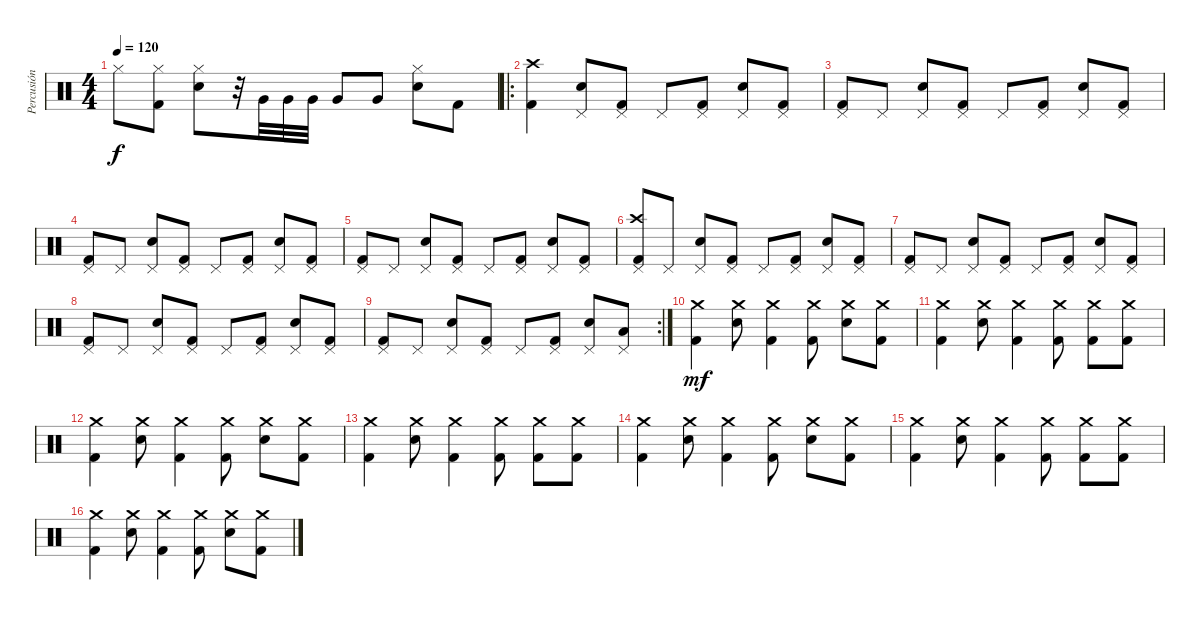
\track ("Percusión" "Percusión") {instrument percussion}
\staff {score}
\articulation defaults
\ts (4 4)
\tempo 120
\clef neutral
\ks c "Hi-Hat (closed)".8{dy f}
("Hi-Hat (closed)" "Kick (hit) 2").8 ("Hi-Hat (closed)" "Electric Snare (hit)").8 r.32 "Very Low Tom (hit)".32 "Very Low Tom (hit)".32 "Very Low Tom (hit)".32 "Very Low Tom (hit)".8 "Very Low Tom (hit)".8 ("Hi-Hat (closed)" "Electric Snare (hit)").8 "Kick (hit) 2".8 |
\ro
("Crash high (hit)" "Kick (hit) 2").4 ("Pedal Hi-Hat (hit)" "Electric Snare (hit)").8 ("Pedal Hi-Hat (hit)" "Kick (hit) 2").8 "Pedal Hi-Hat (hit)".8 ("Pedal Hi-Hat (hit)" "Kick (hit) 2").8 ("Pedal Hi-Hat (hit)" "Electric Snare (hit)").8 ("Pedal Hi-Hat (hit)" "Kick (hit) 2").8 |
("Pedal Hi-Hat (hit)" "Kick (hit) 2").8 "Pedal Hi-Hat (hit)".8 ("Pedal Hi-Hat (hit)" "Electric Snare (hit)").8 ("Pedal Hi-Hat (hit)" "Kick (hit) 2").8 "Pedal Hi-Hat (hit)".8 ("Pedal Hi-Hat (hit)" "Kick (hit) 2").8 ("Pedal Hi-Hat (hit)" "Electric Snare (hit)").8 ("Pedal Hi-Hat (hit)" "Kick (hit) 2").8 |
("Pedal Hi-Hat (hit)" "Kick (hit) 2").8 "Pedal Hi-Hat (hit)".8 ("Pedal Hi-Hat (hit)" "Electric Snare (hit)").8 ("Pedal Hi-Hat (hit)" "Kick (hit) 2").8 "Pedal Hi-Hat (hit)".8 ("Pedal Hi-Hat (hit)" "Kick (hit) 2").8 ("Pedal Hi-Hat (hit)" "Electric Snare (hit)").8 ("Pedal Hi-Hat (hit)" "Kick (hit) 2").8 |
("Pedal Hi-Hat (hit)" "Kick (hit) 2").8 "Pedal Hi-Hat (hit)".8 ("Pedal Hi-Hat (hit)" "Electric Snare (hit)").8 ("Pedal Hi-Hat (hit)" "Kick (hit) 2").8 "Pedal Hi-Hat (hit)".8 ("Pedal Hi-Hat (hit)" "Kick (hit) 2").8 ("Pedal Hi-Hat (hit)" "Electric Snare (hit)").8 ("Pedal Hi-Hat (hit)" "Kick (hit) 2").8 |
("Crash high (hit)" "Pedal Hi-Hat (hit)" "Kick (hit) 2").8 "Pedal Hi-Hat (hit)".8 ("Pedal Hi-Hat (hit)" "Electric Snare (hit)").8 ("Pedal Hi-Hat (hit)" "Kick (hit) 2").8 "Pedal Hi-Hat (hit)".8 ("Pedal Hi-Hat (hit)" "Kick (hit) 2").8 ("Pedal Hi-Hat (hit)" "Electric Snare (hit)").8 ("Pedal Hi-Hat (hit)" "Kick (hit) 2").8 |
("Pedal Hi-Hat (hit)" "Kick (hit) 2").8 "Pedal Hi-Hat (hit)".8 ("Pedal Hi-Hat (hit)" "Electric Snare (hit)").8 ("Pedal Hi-Hat (hit)" "Kick (hit) 2").8 "Pedal Hi-Hat (hit)".8 ("Pedal Hi-Hat (hit)" "Kick (hit) 2").8 ("Pedal Hi-Hat (hit)" "Electric Snare (hit)").8 ("Pedal Hi-Hat (hit)" "Kick (hit) 2").8 |
("Pedal Hi-Hat (hit)" "Kick (hit) 2").8 "Pedal Hi-Hat (hit)".8 ("Pedal Hi-Hat (hit)" "Electric Snare (hit)").8 ("Pedal Hi-Hat (hit)" "Kick (hit) 2").8 "Pedal Hi-Hat (hit)".8 ("Pedal Hi-Hat (hit)" "Kick (hit) 2").8 ("Pedal Hi-Hat (hit)" "Electric Snare (hit)").8 ("Pedal Hi-Hat (hit)" "Kick (hit) 2").8 |
\rc 2
("Pedal Hi-Hat (hit)" "Kick (hit) 2").8 "Pedal Hi-Hat (hit)".8 ("Pedal Hi-Hat (hit)" "Electric Snare (hit)").8 ("Pedal Hi-Hat (hit)" "Kick (hit) 2").8 "Pedal Hi-Hat (hit)".8 ("Pedal Hi-Hat (hit)" "Kick (hit) 2").8 ("Pedal Hi-Hat (hit)" "Electric Snare (hit)").8 ("Pedal Hi-Hat (hit)" "Low Tom (hit)").8 |
("Crash medium (hit)" "Kick (hit) 2").4{dy mf} ("Crash medium (hit)" "Electric Snare (hit)").8 ("Crash medium (hit)" "Kick (hit) 2").4 ("Crash medium (hit)" "Kick (hit) 2").8 ("Crash medium (hit)" "Electric Snare (hit)").8 ("Crash medium (hit)" "Kick (hit) 2").8 |
("Crash medium (hit)" "Kick (hit) 2").4 ("Crash medium (hit)" "Electric Snare (hit)").8 ("Crash medium (hit)" "Kick (hit) 2").4 ("Crash medium (hit)" "Kick (hit) 2").8 ("Crash medium (hit)" "Kick (hit) 2").8 ("Crash medium (hit)" "Kick (hit) 2").8 |
("Crash medium (hit)" "Kick (hit) 2").4 ("Crash medium (hit)" "Electric Snare (hit)").8 ("Crash medium (hit)" "Kick (hit) 2").4 ("Crash medium (hit)" "Kick (hit) 2").8 ("Crash medium (hit)" "Electric Snare (hit)").8 ("Crash medium (hit)" "Kick (hit) 2").8 |
("Crash medium (hit)" "Kick (hit) 2").4 ("Crash medium (hit)" "Electric Snare (hit)").8 ("Crash medium (hit)" "Kick (hit) 2").4 ("Crash medium (hit)" "Kick (hit) 2").8 ("Crash medium (hit)" "Kick (hit) 2").8 ("Crash medium (hit)" "Kick (hit) 2").8 |
("Crash medium (hit)" "Kick (hit) 2").4 ("Crash medium (hit)" "Electric Snare (hit)").8 ("Crash medium (hit)" "Kick (hit) 2").4 ("Crash medium (hit)" "Kick (hit) 2").8 ("Crash medium (hit)" "Electric Snare (hit)").8 ("Crash medium (hit)" "Kick (hit) 2").8 |
("Crash medium (hit)" "Kick (hit) 2").4 ("Crash medium (hit)" "Electric Snare (hit)").8 ("Crash medium (hit)" "Kick (hit) 2").4 ("Crash medium (hit)" "Kick (hit) 2").8 ("Crash medium (hit)" "Kick (hit) 2").8 ("Crash medium (hit)" "Kick (hit) 2").8 |
("Crash medium (hit)" "Kick (hit) 2").4 ("Crash medium (hit)" "Electric Snare (hit)").8 ("Crash medium (hit)" "Kick (hit) 2").4 ("Crash medium (hit)" "Kick (hit) 2").8 ("Crash medium (hit)" "Electric Snare (hit)").8 ("Crash medium (hit)" "Kick (hit) 2").8
